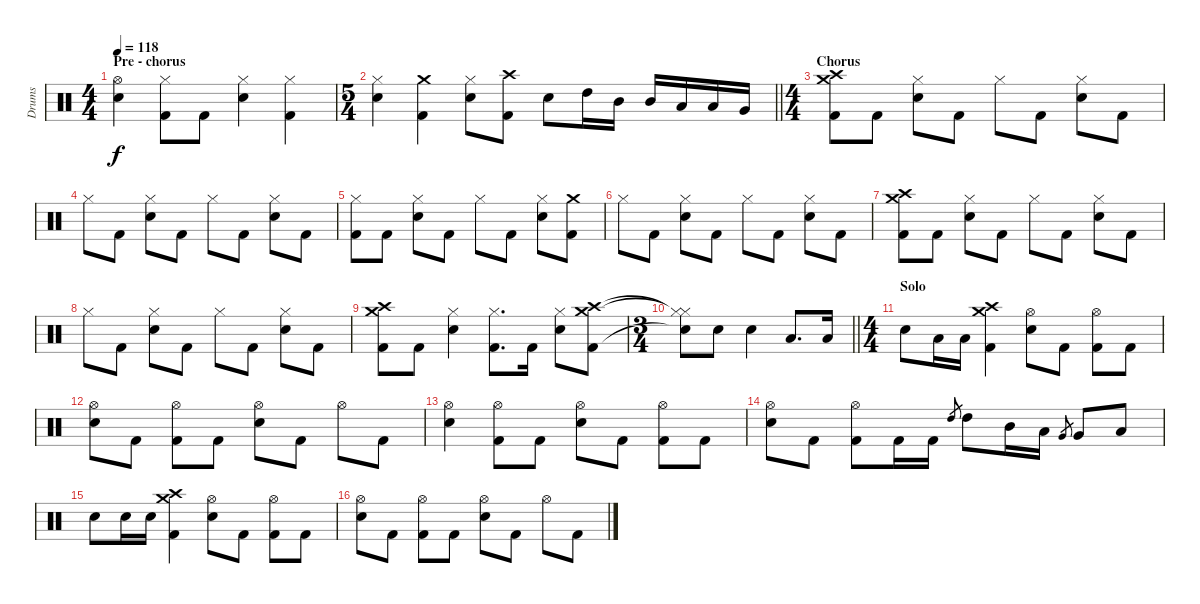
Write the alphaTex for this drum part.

\track ("Drums" "Drums") {instrument percussion}
\staff {score}
\articulation defaults
\ts (4 4)
\section ("" "Pre - chorus")
\tempo 118
\clef neutral
\ks c
("Hi-Hat (open)" "Snare (hit) 2").4{dy f} ("Hi-Hat (closed)" "Kick (hit) 2").8 "Kick (hit) 2".8 ("Hi-Hat (closed)" "Snare (hit) 2").4 ("Hi-Hat (closed)" "Kick (hit) 2").4 |
\ts (5 4)
\barLineRight lightlight
("Hi-Hat (closed)" "Snare (hit) 2").4 ("Crash medium (hit)" "Kick (hit) 2").4 ("Hi-Hat (closed)" "Snare (hit) 2").8 ("Crash high (hit)" "Kick (hit) 2").8 "Snare (hit) 2".8 "High Tom (hit)".16 "Mid Tom (hit)".16 "Mid Tom (hit)".16 "Low Tom (hit)".16 "Low Tom (hit)".16 "Very Low Tom (hit)".16 |
\ts (4 4)
\section ("" "Chorus")
("Crash medium (hit)" "Crash high (hit)" "Kick (hit) 2").8 "Kick (hit) 2".8 ("Hi-Hat (closed)" "Snare (hit) 2").8 "Kick (hit) 2".8 "Hi-Hat (closed)".8 "Kick (hit) 2".8 ("Hi-Hat (closed)" "Snare (hit) 2").8 "Kick (hit) 2".8 |
"Hi-Hat (closed)".8 "Kick (hit) 2".8 ("Hi-Hat (closed)" "Snare (hit) 2").8 "Kick (hit) 2".8 "Hi-Hat (closed)".8 "Kick (hit) 2".8 ("Hi-Hat (closed)" "Snare (hit) 2").8 "Kick (hit) 2".8 |
("Hi-Hat (closed)" "Kick (hit) 2").8 "Kick (hit) 2".8 ("Hi-Hat (closed)" "Snare (hit) 2").8 "Kick (hit) 2".8 "Hi-Hat (closed)".8 "Kick (hit) 2".8 ("Hi-Hat (closed)" "Snare (hit) 2").8 ("Crash medium (hit)" "Kick (hit) 2").8 |
"Hi-Hat (closed)".8 "Kick (hit) 2".8 ("Hi-Hat (closed)" "Snare (hit) 2").8 "Kick (hit) 2".8 "Hi-Hat (closed)".8 "Kick (hit) 2".8 ("Hi-Hat (closed)" "Snare (hit) 2").8 "Kick (hit) 2".8 |
("Crash medium (hit)" "Crash high (hit)" "Kick (hit) 2").8 "Kick (hit) 2".8 ("Hi-Hat (closed)" "Snare (hit) 2").8 "Kick (hit) 2".8 "Hi-Hat (closed)".8 "Kick (hit) 2".8 ("Hi-Hat (closed)" "Snare (hit) 2").8 "Kick (hit) 2".8 |
"Hi-Hat (closed)".8 "Kick (hit) 2".8 ("Hi-Hat (closed)" "Snare (hit) 2").8 "Kick (hit) 2".8 "Hi-Hat (closed)".8 "Kick (hit) 2".8 ("Hi-Hat (closed)" "Snare (hit) 2").8 "Kick (hit) 2".8 |
("Crash medium (hit)" "Crash high (hit)" "Kick (hit) 2").8 "Kick (hit) 2".8 ("Hi-Hat (closed)" "Snare (hit) 2").4 ("Hi-Hat (closed)" "Kick (hit) 2").8{d} "Kick (hit) 2".16 ("Hi-Hat (closed)" "Snare (hit) 2").8 ("Crash medium (hit)" "Crash high (hit)" "Kick (hit) 2").8 |
\ts (3 4)
\barLineRight lightlight
("Hi-Hat (closed)"{t} "Hi-Hat (closed)"{t} "Snare (hit)"{t}).8 "Snare (hit) 2".8 "Snare (hit) 2".4 "Low Floor Tom (hit)".8{d} "Low Floor Tom (hit)".16 |
\ts (4 4)
\section ("" "Solo")
"Snare (hit) 2".8 "Low Floor Tom (hit)".16 "Low Floor Tom (hit)".16 ("Crash medium (hit)" "Crash high (hit)" "Kick (hit) 2").4 ("Hi-Hat (open)" "Snare (hit) 2").8 "Kick (hit) 2".8 ("Hi-Hat (open)" "Kick (hit) 2").8 "Kick (hit) 2".8 |
("Hi-Hat (open)" "Snare (hit) 2").8 "Kick (hit) 2".8 ("Hi-Hat (open)" "Kick (hit) 2").8 "Kick (hit) 2".8 ("Hi-Hat (open)" "Snare (hit) 2").8 "Kick (hit) 2".8 "Hi-Hat (open)".8 "Kick (hit) 2".8 |
("Hi-Hat (open)" "Snare (hit) 2").4 ("Hi-Hat (open)" "Kick (hit) 2").8 "Kick (hit) 2".8 ("Hi-Hat (open)" "Snare (hit) 2").8 "Kick (hit) 2".8 ("Hi-Hat (open)" "Kick (hit) 2").8 "Kick (hit) 2".8 |
("Hi-Hat (open)" "Snare (hit) 2").8 "Kick (hit) 2".8 ("Hi-Hat (open)" "Kick (hit) 2").8 "Kick (hit) 2".16 "Kick (hit) 2".16 "High Tom (hit)".8{gr} "High Tom (hit)".8 "Mid Tom (hit)".16 "Low Tom (hit)".16 "Very Low Tom (hit)".8{gr} "Very Low Tom (hit)".8 "Low Floor Tom (hit)".8 |
"Snare (hit) 2".8 "Snare (hit) 2".16 "Snare (hit) 2".16 ("Crash medium (hit)" "Crash high (hit)" "Kick (hit) 2").4 ("Hi-Hat (open)" "Snare (hit) 2").8 "Kick (hit) 2".8 ("Hi-Hat (open)" "Kick (hit) 2").8 "Kick (hit) 2".8 |
("Hi-Hat (open)" "Snare (hit) 2").8 "Kick (hit) 2".8 ("Hi-Hat (open)" "Kick (hit) 2").8 "Kick (hit) 2".8 ("Hi-Hat (open)" "Snare (hit) 2").8 "Kick (hit) 2".8 "Hi-Hat (open)".8 "Kick (hit) 2".8
